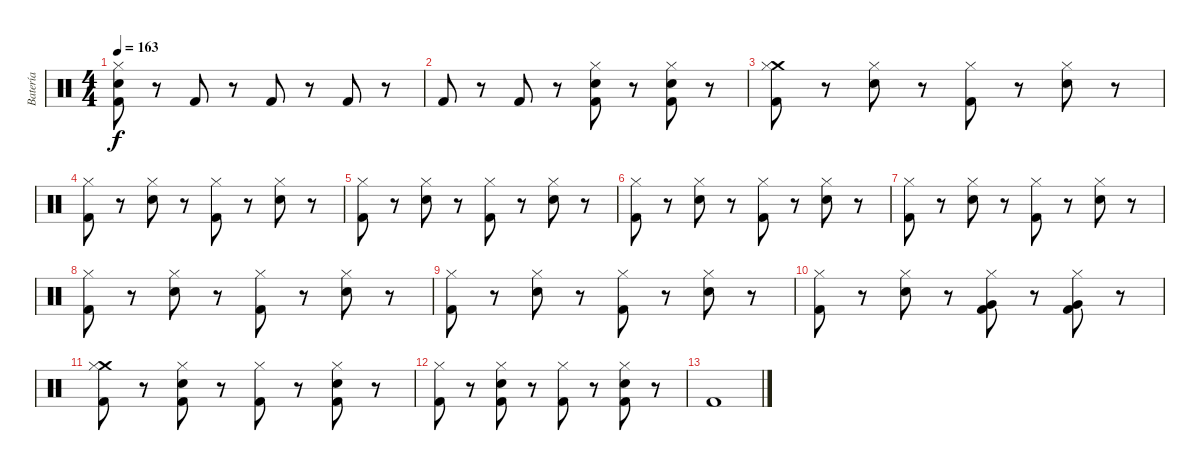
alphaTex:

\track ("Batería" "Batería") {instrument percussion}
\staff {score}
\articulation defaults
\ts (4 4)
\tempo 163
\clef neutral
\ks c
("Hi-Hat (closed)" "Snare (hit) 2" "Kick (hit) 2").8{dy f} r.8 "Kick (hit) 2".8 r.8 "Kick (hit) 2".8 r.8 "Kick (hit) 2".8 r.8 |
"Kick (hit) 2".8 r.8 "Kick (hit) 2".8 r.8 ("Hi-Hat (closed)" "Snare (hit) 2" "Kick (hit) 2").8 r.8 ("Hi-Hat (closed)" "Snare (hit) 2" "Kick (hit) 2").8 r.8 |
("Crash medium (hit)" "Hi-Hat (closed)" "Kick (hit) 2").8 r.8 ("Hi-Hat (closed)" "Snare (hit) 2").8 r.8 ("Hi-Hat (closed)" "Kick (hit) 2").8 r.8 ("Hi-Hat (closed)" "Snare (hit) 2").8 r.8 |
("Hi-Hat (closed)" "Kick (hit) 2").8 r.8 ("Hi-Hat (closed)" "Snare (hit) 2").8 r.8 ("Hi-Hat (closed)" "Kick (hit) 2").8 r.8 ("Hi-Hat (closed)" "Snare (hit) 2").8 r.8 |
("Hi-Hat (closed)" "Kick (hit) 2").8 r.8 ("Hi-Hat (closed)" "Snare (hit) 2").8 r.8 ("Hi-Hat (closed)" "Kick (hit) 2").8 r.8 ("Hi-Hat (closed)" "Snare (hit) 2").8 r.8 |
("Hi-Hat (closed)" "Kick (hit) 2").8 r.8 ("Hi-Hat (closed)" "Snare (hit) 2").8 r.8 ("Hi-Hat (closed)" "Kick (hit) 2").8 r.8 ("Hi-Hat (closed)" "Snare (hit) 2").8 r.8 |
("Hi-Hat (closed)" "Kick (hit) 2").8 r.8 ("Hi-Hat (closed)" "Snare (hit) 2").8 r.8 ("Hi-Hat (closed)" "Kick (hit) 2").8 r.8 ("Hi-Hat (closed)" "Snare (hit) 2").8 r.8 |
("Hi-Hat (closed)" "Kick (hit) 2").8 r.8 ("Hi-Hat (closed)" "Snare (hit) 2").8 r.8 ("Hi-Hat (closed)" "Kick (hit) 2").8 r.8 ("Hi-Hat (closed)" "Snare (hit) 2").8 r.8 |
("Hi-Hat (closed)" "Kick (hit) 2").8 r.8 ("Hi-Hat (closed)" "Snare (hit) 2").8 r.8 ("Hi-Hat (closed)" "Kick (hit) 2").8 r.8 ("Hi-Hat (closed)" "Snare (hit) 2").8 r.8 |
("Hi-Hat (closed)" "Kick (hit) 2").8 r.8 ("Hi-Hat (closed)" "Snare (hit) 2").8 r.8 ("Hi-Hat (closed)" "Very Low Tom (hit)" "Kick (hit) 2").8 r.8 ("Hi-Hat (closed)" "Very Low Tom (hit)" "Kick (hit) 2").8 r.8 |
("Crash medium (hit)" "Hi-Hat (closed)" "Kick (hit) 2").8 r.8 ("Hi-Hat (closed)" "Snare (hit) 2" "Kick (hit) 2").8 r.8 ("Hi-Hat (closed)" "Kick (hit) 2").8 r.8 ("Hi-Hat (closed)" "Snare (hit) 2" "Kick (hit) 2").8 r.8 |
("Hi-Hat (closed)" "Kick (hit) 2").8 r.8 ("Hi-Hat (closed)" "Snare (hit) 2" "Kick (hit) 2").8 r.8 ("Hi-Hat (closed)" "Kick (hit) 2").8 r.8 ("Hi-Hat (closed)" "Snare (hit) 2" "Kick (hit) 2").8 r.8 |
"Kick (hit) 2".1
